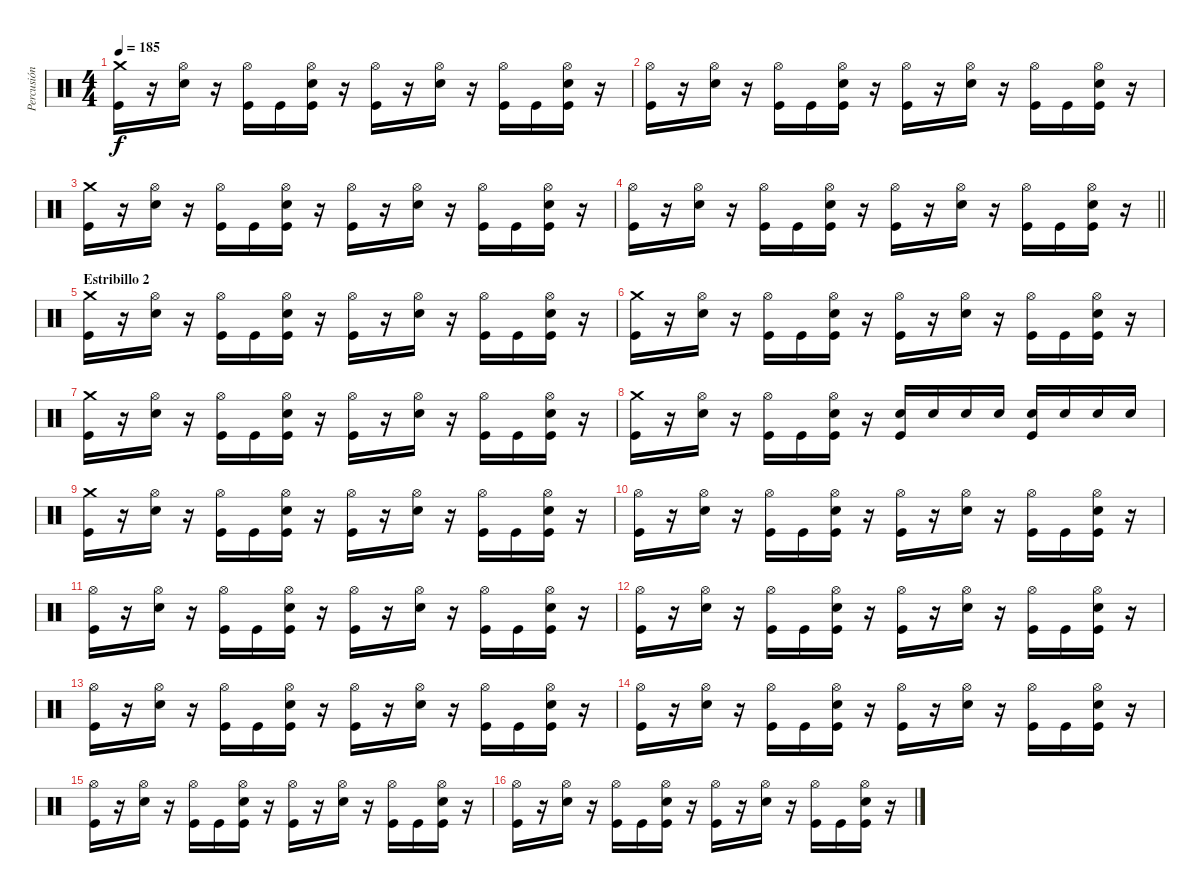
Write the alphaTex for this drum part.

\track ("Percusión" "Percusión") {instrument percussion}
\staff {score}
\articulation defaults
\ts (4 4)
\tempo 185
\clef neutral
\ks c
("Crash medium (hit)" "Kick (hit)").16{dy f} r.16 ("Hi-Hat (open)" "Electric Snare (hit)").16 r.16 ("Hi-Hat (open)" "Kick (hit)").16 "Kick (hit)".16 ("Hi-Hat (open)" "Electric Snare (hit)" "Kick (hit)").16 r.16 ("Hi-Hat (open)" "Kick (hit)").16 r.16 ("Hi-Hat (open)" "Electric Snare (hit)").16 r.16 ("Hi-Hat (open)" "Kick (hit)").16 "Kick (hit)".16 ("Hi-Hat (open)" "Electric Snare (hit)" "Kick (hit)").16 r.16 |
("Hi-Hat (open)" "Kick (hit)").16 r.16 ("Hi-Hat (open)" "Electric Snare (hit)").16 r.16 ("Hi-Hat (open)" "Kick (hit)").16 "Kick (hit)".16 ("Hi-Hat (open)" "Electric Snare (hit)" "Kick (hit)").16 r.16 ("Hi-Hat (open)" "Kick (hit)").16 r.16 ("Hi-Hat (open)" "Electric Snare (hit)").16 r.16 ("Hi-Hat (open)" "Kick (hit)").16 "Kick (hit)".16 ("Hi-Hat (open)" "Electric Snare (hit)" "Kick (hit)").16 r.16 |
("Crash medium (hit)" "Kick (hit)").16 r.16 ("Hi-Hat (open)" "Electric Snare (hit)").16 r.16 ("Hi-Hat (open)" "Kick (hit)").16 "Kick (hit)".16 ("Hi-Hat (open)" "Electric Snare (hit)" "Kick (hit)").16 r.16 ("Hi-Hat (open)" "Kick (hit)").16 r.16 ("Hi-Hat (open)" "Electric Snare (hit)").16 r.16 ("Hi-Hat (open)" "Kick (hit)").16 "Kick (hit)".16 ("Hi-Hat (open)" "Electric Snare (hit)" "Kick (hit)").16 r.16 |
\barLineRight lightlight
("Hi-Hat (open)" "Kick (hit)").16 r.16 ("Hi-Hat (open)" "Electric Snare (hit)").16 r.16 ("Hi-Hat (open)" "Kick (hit)").16 "Kick (hit)".16 ("Hi-Hat (open)" "Electric Snare (hit)" "Kick (hit)").16 r.16 ("Hi-Hat (open)" "Kick (hit)").16 r.16 ("Hi-Hat (open)" "Electric Snare (hit)").16 r.16 ("Hi-Hat (open)" "Kick (hit)").16 "Kick (hit)".16 ("Hi-Hat (open)" "Electric Snare (hit)" "Kick (hit)").16 r.16 |
\section ("" "Estribillo 2")
("Crash medium (hit)" "Kick (hit)").16 r.16 ("Hi-Hat (open)" "Electric Snare (hit)").16 r.16 ("Hi-Hat (open)" "Kick (hit)").16 "Kick (hit)".16 ("Hi-Hat (open)" "Electric Snare (hit)" "Kick (hit)").16 r.16 ("Hi-Hat (open)" "Kick (hit)").16 r.16 ("Hi-Hat (open)" "Electric Snare (hit)").16 r.16 ("Hi-Hat (open)" "Kick (hit)").16 "Kick (hit)".16 ("Hi-Hat (open)" "Electric Snare (hit)" "Kick (hit)").16 r.16 |
("Crash medium (hit)" "Kick (hit)").16 r.16 ("Hi-Hat (open)" "Electric Snare (hit)").16 r.16 ("Hi-Hat (open)" "Kick (hit)").16 "Kick (hit)".16 ("Hi-Hat (open)" "Electric Snare (hit)" "Kick (hit)").16 r.16 ("Hi-Hat (open)" "Kick (hit)").16 r.16 ("Hi-Hat (open)" "Electric Snare (hit)").16 r.16 ("Hi-Hat (open)" "Kick (hit)").16 "Kick (hit)".16 ("Hi-Hat (open)" "Electric Snare (hit)" "Kick (hit)").16 r.16 |
("Crash medium (hit)" "Kick (hit)").16 r.16 ("Hi-Hat (open)" "Electric Snare (hit)").16 r.16 ("Hi-Hat (open)" "Kick (hit)").16 "Kick (hit)".16 ("Hi-Hat (open)" "Electric Snare (hit)" "Kick (hit)").16 r.16 ("Hi-Hat (open)" "Kick (hit)").16 r.16 ("Hi-Hat (open)" "Electric Snare (hit)").16 r.16 ("Hi-Hat (open)" "Kick (hit)").16 "Kick (hit)".16 ("Hi-Hat (open)" "Electric Snare (hit)" "Kick (hit)").16 r.16 |
("Crash medium (hit)" "Kick (hit)").16 r.16 ("Hi-Hat (open)" "Electric Snare (hit)").16 r.16 ("Hi-Hat (open)" "Kick (hit)").16 "Kick (hit)".16 ("Hi-Hat (open)" "Electric Snare (hit)" "Kick (hit)").16 r.16 ("Electric Snare (hit)" "Kick (hit)").16 "Electric Snare (hit)".16 "Electric Snare (hit)".16 "Electric Snare (hit)".16 ("Electric Snare (hit)" "Kick (hit)").16 "Electric Snare (hit)".16 "Electric Snare (hit)".16 "Electric Snare (hit)".16 |
("Crash medium (hit)" "Kick (hit)").16 r.16 ("Hi-Hat (open)" "Electric Snare (hit)").16 r.16 ("Hi-Hat (open)" "Kick (hit)").16 "Kick (hit)".16 ("Hi-Hat (open)" "Electric Snare (hit)" "Kick (hit)").16 r.16 ("Hi-Hat (open)" "Kick (hit)").16 r.16 ("Hi-Hat (open)" "Electric Snare (hit)").16 r.16 ("Hi-Hat (open)" "Kick (hit)").16 "Kick (hit)".16 ("Hi-Hat (open)" "Electric Snare (hit)" "Kick (hit)").16 r.16 |
("Hi-Hat (open)" "Kick (hit)").16 r.16 ("Hi-Hat (open)" "Electric Snare (hit)").16 r.16 ("Hi-Hat (open)" "Kick (hit)").16 "Kick (hit)".16 ("Hi-Hat (open)" "Electric Snare (hit)" "Kick (hit)").16 r.16 ("Hi-Hat (open)" "Kick (hit)").16 r.16 ("Hi-Hat (open)" "Electric Snare (hit)").16 r.16 ("Hi-Hat (open)" "Kick (hit)").16 "Kick (hit)".16 ("Hi-Hat (open)" "Electric Snare (hit)" "Kick (hit)").16 r.16 |
("Hi-Hat (open)" "Kick (hit)").16 r.16 ("Hi-Hat (open)" "Electric Snare (hit)").16 r.16 ("Hi-Hat (open)" "Kick (hit)").16 "Kick (hit)".16 ("Hi-Hat (open)" "Electric Snare (hit)" "Kick (hit)").16 r.16 ("Hi-Hat (open)" "Kick (hit)").16 r.16 ("Hi-Hat (open)" "Electric Snare (hit)").16 r.16 ("Hi-Hat (open)" "Kick (hit)").16 "Kick (hit)".16 ("Hi-Hat (open)" "Electric Snare (hit)" "Kick (hit)").16 r.16 |
("Hi-Hat (open)" "Kick (hit)").16 r.16 ("Hi-Hat (open)" "Electric Snare (hit)").16 r.16 ("Hi-Hat (open)" "Kick (hit)").16 "Kick (hit)".16 ("Hi-Hat (open)" "Electric Snare (hit)" "Kick (hit)").16 r.16 ("Hi-Hat (open)" "Kick (hit)").16 r.16 ("Hi-Hat (open)" "Electric Snare (hit)").16 r.16 ("Hi-Hat (open)" "Kick (hit)").16 "Kick (hit)".16 ("Hi-Hat (open)" "Electric Snare (hit)" "Kick (hit)").16 r.16 |
("Hi-Hat (open)" "Kick (hit)").16 r.16 ("Hi-Hat (open)" "Electric Snare (hit)").16 r.16 ("Hi-Hat (open)" "Kick (hit)").16 "Kick (hit)".16 ("Hi-Hat (open)" "Electric Snare (hit)" "Kick (hit)").16 r.16 ("Hi-Hat (open)" "Kick (hit)").16 r.16 ("Hi-Hat (open)" "Electric Snare (hit)").16 r.16 ("Hi-Hat (open)" "Kick (hit)").16 "Kick (hit)".16 ("Hi-Hat (open)" "Electric Snare (hit)" "Kick (hit)").16 r.16 |
("Hi-Hat (open)" "Kick (hit)").16 r.16 ("Hi-Hat (open)" "Electric Snare (hit)").16 r.16 ("Hi-Hat (open)" "Kick (hit)").16 "Kick (hit)".16 ("Hi-Hat (open)" "Electric Snare (hit)" "Kick (hit)").16 r.16 ("Hi-Hat (open)" "Kick (hit)").16 r.16 ("Hi-Hat (open)" "Electric Snare (hit)").16 r.16 ("Hi-Hat (open)" "Kick (hit)").16 "Kick (hit)".16 ("Hi-Hat (open)" "Electric Snare (hit)" "Kick (hit)").16 r.16 |
("Hi-Hat (open)" "Kick (hit)").16 r.16 ("Hi-Hat (open)" "Electric Snare (hit)").16 r.16 ("Hi-Hat (open)" "Kick (hit)").16 "Kick (hit)".16 ("Hi-Hat (open)" "Electric Snare (hit)" "Kick (hit)").16 r.16 ("Hi-Hat (open)" "Kick (hit)").16 r.16 ("Hi-Hat (open)" "Electric Snare (hit)").16 r.16 ("Hi-Hat (open)" "Kick (hit)").16 "Kick (hit)".16 ("Hi-Hat (open)" "Electric Snare (hit)" "Kick (hit)").16 r.16 |
("Hi-Hat (open)" "Kick (hit)").16 r.16 ("Hi-Hat (open)" "Electric Snare (hit)").16 r.16 ("Hi-Hat (open)" "Kick (hit)").16 "Kick (hit)".16 ("Hi-Hat (open)" "Electric Snare (hit)" "Kick (hit)").16 r.16 ("Hi-Hat (open)" "Kick (hit)").16 r.16 ("Hi-Hat (open)" "Electric Snare (hit)").16 r.16 ("Hi-Hat (open)" "Kick (hit)").16 "Kick (hit)".16 ("Hi-Hat (open)" "Electric Snare (hit)" "Kick (hit)").16 r.16
